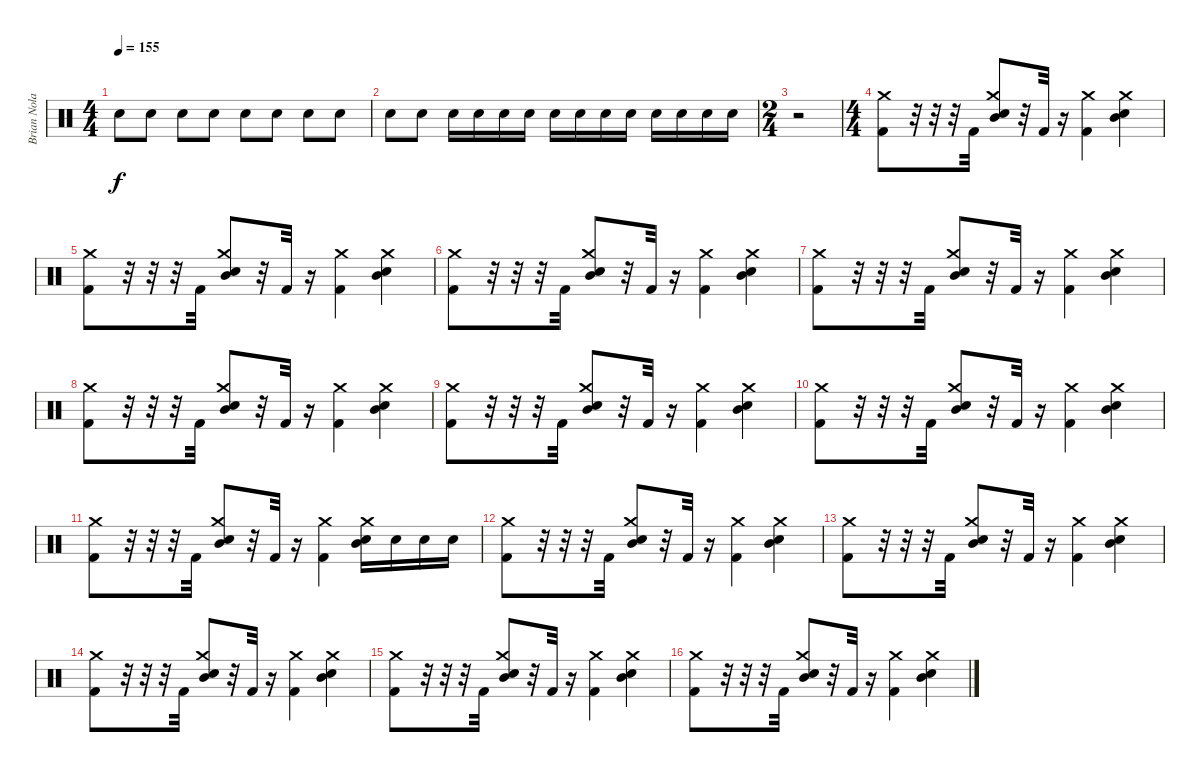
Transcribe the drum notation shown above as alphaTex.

\track ("Brian Nolan" "Brian Nola") {instrument percussion}
\staff {score}
\articulation defaults
\ts (4 4)
\tempo 155
\clef neutral
\ks c "Snare (hit) 2".8{dy f} "Snare (hit) 2".8 "Snare (hit) 2".8 "Snare (hit) 2".8 "Snare (hit) 2".8 "Snare (hit) 2".8 "Snare (hit) 2".8 "Snare (hit) 2".8
|
"Snare (hit) 2".8 "Snare (hit) 2".8 "Snare (hit) 2".16 "Snare (hit) 2".16 "Snare (hit) 2".16 "Snare (hit) 2".16 "Snare (hit) 2".16 "Snare (hit) 2".16 "Snare (hit) 2".16 "Snare (hit) 2".16 "Snare (hit) 2".16 "Snare (hit) 2".16 "Snare (hit) 2".16 "Snare (hit) 2".16 |
\ts (2 4)
r.2 |
\ts (4 4)
("Crash medium (hit)" "Kick (hit) 2").8 r.32 r.32 r.32 "Kick (hit) 2".32 ("Snare (hit) 2" "Mid Tom (hit)" "Crash medium (hit)").8 r.32 "Kick (hit) 2".32 r.16 ("Crash medium (hit)" "Kick (hit) 2").4 ("Snare (hit) 2" "Mid Tom (hit)" "Crash medium (hit)").4 |
("Crash medium (hit)" "Kick (hit) 2").8 r.32 r.32 r.32 "Kick (hit) 2".32 ("Snare (hit) 2" "Mid Tom (hit)" "Crash medium (hit)").8 r.32 "Kick (hit) 2".32 r.16 ("Crash medium (hit)" "Kick (hit) 2").4 ("Snare (hit) 2" "Mid Tom (hit)" "Crash medium (hit)").4 |
("Crash medium (hit)" "Kick (hit) 2").8 r.32 r.32 r.32 "Kick (hit) 2".32 ("Snare (hit) 2" "Mid Tom (hit)" "Crash medium (hit)").8 r.32 "Kick (hit) 2".32 r.16 ("Crash medium (hit)" "Kick (hit) 2").4 ("Snare (hit) 2" "Mid Tom (hit)" "Crash medium (hit)").4 |
("Crash medium (hit)" "Kick (hit) 2").8 r.32 r.32 r.32 "Kick (hit) 2".32 ("Snare (hit) 2" "Mid Tom (hit)" "Crash medium (hit)").8 r.32 "Kick (hit) 2".32 r.16 ("Crash medium (hit)" "Kick (hit) 2").4 ("Snare (hit) 2" "Mid Tom (hit)" "Crash medium (hit)").4 |
("Crash medium (hit)" "Kick (hit) 2").8 r.32 r.32 r.32 "Kick (hit) 2".32 ("Snare (hit) 2" "Mid Tom (hit)" "Crash medium (hit)").8 r.32 "Kick (hit) 2".32 r.16 ("Crash medium (hit)" "Kick (hit) 2").4 ("Snare (hit) 2" "Mid Tom (hit)" "Crash medium (hit)").4 |
("Crash medium (hit)" "Kick (hit) 2").8 r.32 r.32 r.32 "Kick (hit) 2".32 ("Snare (hit) 2" "Mid Tom (hit)" "Crash medium (hit)").8 r.32 "Kick (hit) 2".32 r.16 ("Crash medium (hit)" "Kick (hit) 2").4 ("Snare (hit) 2" "Mid Tom (hit)" "Crash medium (hit)").4 |
("Crash medium (hit)" "Kick (hit) 2").8 r.32 r.32 r.32 "Kick (hit) 2".32 ("Snare (hit) 2" "Mid Tom (hit)" "Crash medium (hit)").8 r.32 "Kick (hit) 2".32 r.16 ("Crash medium (hit)" "Kick (hit) 2").4 ("Snare (hit) 2" "Mid Tom (hit)" "Crash medium (hit)").4 |
("Crash medium (hit)" "Kick (hit) 2").8 r.32 r.32 r.32 "Kick (hit) 2".32 ("Snare (hit) 2" "Mid Tom (hit)" "Crash medium (hit)").8 r.32 "Kick (hit) 2".32 r.16 ("Crash medium (hit)" "Kick (hit) 2").4 ("Snare (hit) 2" "Mid Tom (hit)" "Crash medium (hit)").16 "Snare (hit) 2".16 "Snare (hit) 2".16 "Snare (hit) 2".16 |
("Crash medium (hit)" "Kick (hit) 2").8 r.32 r.32 r.32 "Kick (hit) 2".32 ("Snare (hit) 2" "Mid Tom (hit)" "Crash medium (hit)").8 r.32 "Kick (hit) 2".32 r.16 ("Crash medium (hit)" "Kick (hit) 2").4 ("Snare (hit) 2" "Mid Tom (hit)" "Crash medium (hit)").4 |
("Crash medium (hit)" "Kick (hit) 2").8 r.32 r.32 r.32 "Kick (hit) 2".32 ("Snare (hit) 2" "Mid Tom (hit)" "Crash medium (hit)").8 r.32 "Kick (hit) 2".32 r.16 ("Crash medium (hit)" "Kick (hit) 2").4 ("Snare (hit) 2" "Mid Tom (hit)" "Crash medium (hit)").4 |
("Crash medium (hit)" "Kick (hit) 2").8 r.32 r.32 r.32 "Kick (hit) 2".32 ("Snare (hit) 2" "Mid Tom (hit)" "Crash medium (hit)").8 r.32 "Kick (hit) 2".32 r.16 ("Crash medium (hit)" "Kick (hit) 2").4 ("Snare (hit) 2" "Mid Tom (hit)" "Crash medium (hit)").4 |
("Crash medium (hit)" "Kick (hit) 2").8 r.32 r.32 r.32 "Kick (hit) 2".32 ("Snare (hit) 2" "Mid Tom (hit)" "Crash medium (hit)").8 r.32 "Kick (hit) 2".32 r.16 ("Crash medium (hit)" "Kick (hit) 2").4 ("Snare (hit) 2" "Mid Tom (hit)" "Crash medium (hit)").4 |
("Crash medium (hit)" "Kick (hit) 2").8 r.32 r.32 r.32 "Kick (hit) 2".32 ("Snare (hit) 2" "Mid Tom (hit)" "Crash medium (hit)").8 r.32 "Kick (hit) 2".32 r.16 ("Crash medium (hit)" "Kick (hit) 2").4 ("Snare (hit) 2" "Mid Tom (hit)" "Crash medium (hit)").4
